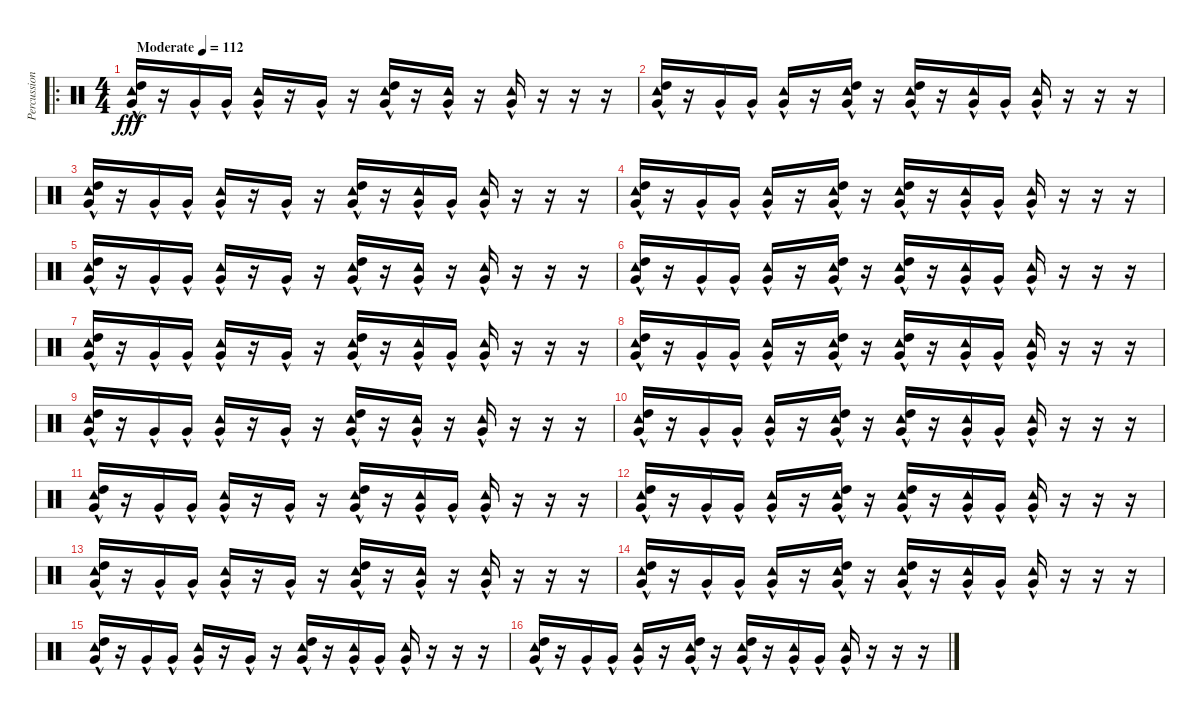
\track ("Percussion" "Percussion") {instrument percussion}
\staff {score}
\articulation defaults
\ro
\ts (4 4)
\tempo (112 "Moderate")
\clef neutral
\ks c
("Tambourine (hit)" "High Tom (hit)"{hac} "Very Low Tom (hit)"{hac}).16{dy fff} r.16 "Very Low Tom (hit)"{hac}.16 "Very Low Tom (hit)"{hac}.16 ("Tambourine (hit)" "Very Low Tom (hit)"{hac}).16 r.16 "Very Low Tom (hit)"{hac}.16 r.16 ("Tambourine (hit)" "High Tom (hit)"{hac} "Very Low Tom (hit)"{hac}).16 r.16 ("Tambourine (hit)" "Very Low Tom (hit)"{hac}).16 r.16 ("Tambourine (hit)" "Very Low Tom (hit)"{hac}).16 r.16 r.16 r.16 |
("Tambourine (hit)" "High Tom (hit)"{hac} "Very Low Tom (hit)"{hac}).16 r.16 "Very Low Tom (hit)"{hac}.16 "Very Low Tom (hit)"{hac}.16 ("Tambourine (hit)" "Very Low Tom (hit)"{hac}).16 r.16 ("Tambourine (hit)" "High Tom (hit)"{hac} "Very Low Tom (hit)"{hac}).16 r.16 ("Tambourine (hit)" "High Tom (hit)"{hac} "Very Low Tom (hit)"{hac}).16 r.16 ("Tambourine (hit)" "Very Low Tom (hit)"{hac}).16 "Very Low Tom (hit)"{hac}.16 ("Tambourine (hit)" "Very Low Tom (hit)"{hac}).16 r.16 r.16 r.16 |
("Tambourine (hit)" "High Tom (hit)"{hac} "Very Low Tom (hit)"{hac}).16 r.16 "Very Low Tom (hit)"{hac}.16 "Very Low Tom (hit)"{hac}.16 ("Tambourine (hit)" "Very Low Tom (hit)"{hac}).16 r.16 "Very Low Tom (hit)"{hac}.16 r.16 ("Tambourine (hit)" "High Tom (hit)"{hac} "Very Low Tom (hit)"{hac}).16 r.16 ("Tambourine (hit)" "Very Low Tom (hit)"{hac}).16 "Very Low Tom (hit)"{hac}.16 ("Tambourine (hit)" "Very Low Tom (hit)"{hac}).16 r.16 r.16 r.16 |
("Tambourine (hit)" "High Tom (hit)"{hac} "Very Low Tom (hit)"{hac}).16 r.16 "Very Low Tom (hit)"{hac}.16 "Very Low Tom (hit)"{hac}.16 ("Tambourine (hit)" "Very Low Tom (hit)"{hac}).16 r.16 ("Tambourine (hit)" "High Tom (hit)"{hac} "Very Low Tom (hit)"{hac}).16 r.16 ("Tambourine (hit)" "High Tom (hit)"{hac} "Very Low Tom (hit)"{hac}).16 r.16 ("Tambourine (hit)" "Very Low Tom (hit)"{hac}).16 "Very Low Tom (hit)"{hac}.16 ("Tambourine (hit)" "Very Low Tom (hit)"{hac}).16 r.16 r.16 r.16 |
("Tambourine (hit)" "High Tom (hit)"{hac} "Very Low Tom (hit)"{hac}).16 r.16 "Very Low Tom (hit)"{hac}.16 "Very Low Tom (hit)"{hac}.16 ("Tambourine (hit)" "Very Low Tom (hit)"{hac}).16 r.16 "Very Low Tom (hit)"{hac}.16 r.16 ("Tambourine (hit)" "High Tom (hit)"{hac} "Very Low Tom (hit)"{hac}).16 r.16 ("Tambourine (hit)" "Very Low Tom (hit)"{hac}).16 r.16 ("Tambourine (hit)" "Very Low Tom (hit)"{hac}).16 r.16 r.16 r.16 |
("Tambourine (hit)" "High Tom (hit)"{hac} "Very Low Tom (hit)"{hac}).16 r.16 "Very Low Tom (hit)"{hac}.16 "Very Low Tom (hit)"{hac}.16 ("Tambourine (hit)" "Very Low Tom (hit)"{hac}).16 r.16 ("Tambourine (hit)" "High Tom (hit)"{hac} "Very Low Tom (hit)"{hac}).16 r.16 ("Tambourine (hit)" "High Tom (hit)"{hac} "Very Low Tom (hit)"{hac}).16 r.16 ("Tambourine (hit)" "Very Low Tom (hit)"{hac}).16 "Very Low Tom (hit)"{hac}.16 ("Tambourine (hit)" "Very Low Tom (hit)"{hac}).16 r.16 r.16 r.16 |
("Tambourine (hit)" "High Tom (hit)"{hac} "Very Low Tom (hit)"{hac}).16 r.16 "Very Low Tom (hit)"{hac}.16 "Very Low Tom (hit)"{hac}.16 ("Tambourine (hit)" "Very Low Tom (hit)"{hac}).16 r.16 "Very Low Tom (hit)"{hac}.16 r.16 ("Tambourine (hit)" "High Tom (hit)"{hac} "Very Low Tom (hit)"{hac}).16 r.16 ("Tambourine (hit)" "Very Low Tom (hit)"{hac}).16 "Very Low Tom (hit)"{hac}.16 ("Tambourine (hit)" "Very Low Tom (hit)"{hac}).16 r.16 r.16 r.16 |
("Tambourine (hit)" "High Tom (hit)"{hac} "Very Low Tom (hit)"{hac}).16 r.16 "Very Low Tom (hit)"{hac}.16 "Very Low Tom (hit)"{hac}.16 ("Tambourine (hit)" "Very Low Tom (hit)"{hac}).16 r.16 ("Tambourine (hit)" "High Tom (hit)"{hac} "Very Low Tom (hit)"{hac}).16 r.16 ("Tambourine (hit)" "High Tom (hit)"{hac} "Very Low Tom (hit)"{hac}).16 r.16 ("Tambourine (hit)" "Very Low Tom (hit)"{hac}).16 "Very Low Tom (hit)"{hac}.16 ("Tambourine (hit)" "Very Low Tom (hit)"{hac}).16 r.16 r.16 r.16 |
("Tambourine (hit)" "High Tom (hit)"{hac} "Very Low Tom (hit)"{hac}).16 r.16 "Very Low Tom (hit)"{hac}.16 "Very Low Tom (hit)"{hac}.16 ("Tambourine (hit)" "Very Low Tom (hit)"{hac}).16 r.16 "Very Low Tom (hit)"{hac}.16 r.16 ("Tambourine (hit)" "High Tom (hit)"{hac} "Very Low Tom (hit)"{hac}).16 r.16 ("Tambourine (hit)" "Very Low Tom (hit)"{hac}).16 r.16 ("Tambourine (hit)" "Very Low Tom (hit)"{hac}).16 r.16 r.16 r.16 |
("Tambourine (hit)" "High Tom (hit)"{hac} "Very Low Tom (hit)"{hac}).16 r.16 "Very Low Tom (hit)"{hac}.16 "Very Low Tom (hit)"{hac}.16 ("Tambourine (hit)" "Very Low Tom (hit)"{hac}).16 r.16 ("Tambourine (hit)" "High Tom (hit)"{hac} "Very Low Tom (hit)"{hac}).16 r.16 ("Tambourine (hit)" "High Tom (hit)"{hac} "Very Low Tom (hit)"{hac}).16 r.16 ("Tambourine (hit)" "Very Low Tom (hit)"{hac}).16 "Very Low Tom (hit)"{hac}.16 ("Tambourine (hit)" "Very Low Tom (hit)"{hac}).16 r.16 r.16 r.16 |
("Tambourine (hit)" "High Tom (hit)"{hac} "Very Low Tom (hit)"{hac}).16 r.16 "Very Low Tom (hit)"{hac}.16 "Very Low Tom (hit)"{hac}.16 ("Tambourine (hit)" "Very Low Tom (hit)"{hac}).16 r.16 "Very Low Tom (hit)"{hac}.16 r.16 ("Tambourine (hit)" "High Tom (hit)"{hac} "Very Low Tom (hit)"{hac}).16 r.16 ("Tambourine (hit)" "Very Low Tom (hit)"{hac}).16 "Very Low Tom (hit)"{hac}.16 ("Tambourine (hit)" "Very Low Tom (hit)"{hac}).16 r.16 r.16 r.16 |
("Tambourine (hit)" "High Tom (hit)"{hac} "Very Low Tom (hit)"{hac}).16 r.16 "Very Low Tom (hit)"{hac}.16 "Very Low Tom (hit)"{hac}.16 ("Tambourine (hit)" "Very Low Tom (hit)"{hac}).16 r.16 ("Tambourine (hit)" "High Tom (hit)"{hac} "Very Low Tom (hit)"{hac}).16 r.16 ("Tambourine (hit)" "High Tom (hit)"{hac} "Very Low Tom (hit)"{hac}).16 r.16 ("Tambourine (hit)" "Very Low Tom (hit)"{hac}).16 "Very Low Tom (hit)"{hac}.16 ("Tambourine (hit)" "Very Low Tom (hit)"{hac}).16 r.16 r.16 r.16 |
("Tambourine (hit)" "High Tom (hit)"{hac} "Very Low Tom (hit)"{hac}).16 r.16 "Very Low Tom (hit)"{hac}.16 "Very Low Tom (hit)"{hac}.16 ("Tambourine (hit)" "Very Low Tom (hit)"{hac}).16 r.16 "Very Low Tom (hit)"{hac}.16 r.16 ("Tambourine (hit)" "High Tom (hit)"{hac} "Very Low Tom (hit)"{hac}).16 r.16 ("Tambourine (hit)" "Very Low Tom (hit)"{hac}).16 r.16 ("Tambourine (hit)" "Very Low Tom (hit)"{hac}).16 r.16 r.16 r.16 |
("Tambourine (hit)" "High Tom (hit)"{hac} "Very Low Tom (hit)"{hac}).16 r.16 "Very Low Tom (hit)"{hac}.16 "Very Low Tom (hit)"{hac}.16 ("Tambourine (hit)" "Very Low Tom (hit)"{hac}).16 r.16 ("Tambourine (hit)" "High Tom (hit)"{hac} "Very Low Tom (hit)"{hac}).16 r.16 ("Tambourine (hit)" "High Tom (hit)"{hac} "Very Low Tom (hit)"{hac}).16 r.16 ("Tambourine (hit)" "Very Low Tom (hit)"{hac}).16 "Very Low Tom (hit)"{hac}.16 ("Tambourine (hit)" "Very Low Tom (hit)"{hac}).16 r.16 r.16 r.16 |
("Tambourine (hit)" "High Tom (hit)"{hac} "Very Low Tom (hit)"{hac}).16 r.16 "Very Low Tom (hit)"{hac}.16 "Very Low Tom (hit)"{hac}.16 ("Tambourine (hit)" "Very Low Tom (hit)"{hac}).16 r.16 "Very Low Tom (hit)"{hac}.16 r.16 ("Tambourine (hit)" "High Tom (hit)"{hac} "Very Low Tom (hit)"{hac}).16 r.16 ("Tambourine (hit)" "Very Low Tom (hit)"{hac}).16 "Very Low Tom (hit)"{hac}.16 ("Tambourine (hit)" "Very Low Tom (hit)"{hac}).16 r.16 r.16 r.16 |
("Tambourine (hit)" "High Tom (hit)"{hac} "Very Low Tom (hit)"{hac}).16 r.16 "Very Low Tom (hit)"{hac}.16 "Very Low Tom (hit)"{hac}.16 ("Tambourine (hit)" "Very Low Tom (hit)"{hac}).16 r.16 ("Tambourine (hit)" "High Tom (hit)"{hac} "Very Low Tom (hit)"{hac}).16 r.16 ("Tambourine (hit)" "High Tom (hit)"{hac} "Very Low Tom (hit)"{hac}).16 r.16 ("Tambourine (hit)" "Very Low Tom (hit)"{hac}).16 "Very Low Tom (hit)"{hac}.16 ("Tambourine (hit)" "Very Low Tom (hit)"{hac}).16 r.16 r.16 r.16
